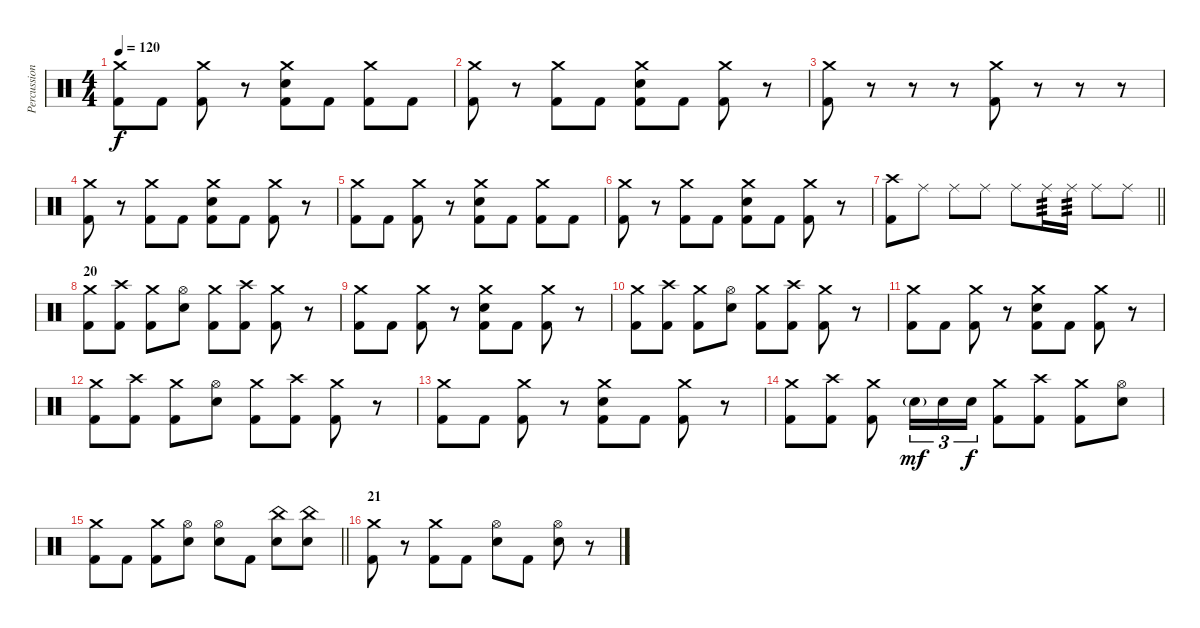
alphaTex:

\track ("Percussion" "Percussion") {instrument percussion}
\staff {score}
\articulation defaults
\ts (4 4)
\tempo 120
\clef neutral
\ks c
("Crash medium (hit)" "Kick (hit) 2").8{dy f} "Kick (hit) 2".8 ("Crash medium (hit)" "Kick (hit) 2").8 r.8 ("Crash medium (hit)" "Snare (hit) 2" "Kick (hit) 2").8 "Kick (hit) 2".8 ("Crash medium (hit)" "Kick (hit) 2").8 "Kick (hit) 2".8 |
("Crash medium (hit)" "Kick (hit) 2").8 r.8 ("Crash medium (hit)" "Kick (hit) 2").8 "Kick (hit) 2".8 ("Crash medium (hit)" "Snare (hit) 2" "Kick (hit) 2").8 "Kick (hit) 2".8 ("Crash medium (hit)" "Kick (hit) 2").8 r.8 |
("Crash medium (hit)" "Kick (hit) 2").8 r.8 r.8 r.8 ("Crash medium (hit)" "Kick (hit) 2").8 r.8 r.8 r.8 |
("Crash medium (hit)" "Kick (hit) 2").8 r.8 ("Crash medium (hit)" "Kick (hit) 2").8 "Kick (hit) 2".8 ("Crash medium (hit)" "Snare (hit) 2" "Kick (hit) 2").8 "Kick (hit) 2".8 ("Crash medium (hit)" "Kick (hit) 2").8 r.8 |
("Crash medium (hit)" "Kick (hit) 2").8 "Kick (hit) 2".8 ("Crash medium (hit)" "Kick (hit) 2").8 r.8 ("Crash medium (hit)" "Snare (hit) 2" "Kick (hit) 2").8 "Kick (hit) 2".8 ("Crash medium (hit)" "Kick (hit) 2").8 "Kick (hit) 2".8 |
("Crash medium (hit)" "Kick (hit) 2").8 r.8 ("Crash medium (hit)" "Kick (hit) 2").8 "Kick (hit) 2".8 ("Crash medium (hit)" "Snare (hit) 2" "Kick (hit) 2").8 "Kick (hit) 2".8 ("Crash medium (hit)" "Kick (hit) 2").8 r.8 |
\barLineRight lightlight
("Crash high (hit)" "Kick (hit) 2").8 "Ride (middle)".8 "Ride (middle)".8 "Ride (middle)".8 "Ride (middle)".8 "Ride (middle)".16{tp 3} "Ride (middle)".16{tp 3} "Ride (middle)".8 "Ride (middle)".8 |
\section ("" "20")
("Crash medium (hit)" "Kick (hit) 2").8 ("Crash high (hit)" "Kick (hit) 2").8 ("Crash medium (hit)" "Kick (hit) 2").8 ("Hi-Hat (open)" "Snare (hit) 2").8 ("Crash medium (hit)" "Kick (hit) 2").8 ("Crash high (hit)" "Kick (hit) 2").8 ("Crash medium (hit)" "Kick (hit) 2").8 r.8 |
("Crash medium (hit)" "Kick (hit) 2").8 "Kick (hit) 2".8 ("Crash medium (hit)" "Kick (hit) 2").8 r.8 ("Crash medium (hit)" "Snare (hit) 2" "Kick (hit) 2").8 "Kick (hit) 2".8 ("Crash medium (hit)" "Kick (hit) 2").8 r.8 |
("Crash medium (hit)" "Kick (hit) 2").8 ("Crash high (hit)" "Kick (hit) 2").8 ("Crash medium (hit)" "Kick (hit) 2").8 ("Hi-Hat (open)" "Snare (hit) 2").8 ("Crash medium (hit)" "Kick (hit) 2").8 ("Crash high (hit)" "Kick (hit) 2").8 ("Crash medium (hit)" "Kick (hit) 2").8 r.8 |
("Crash medium (hit)" "Kick (hit) 2").8 "Kick (hit) 2".8 ("Crash medium (hit)" "Kick (hit) 2").8 r.8 ("Crash medium (hit)" "Snare (hit) 2" "Kick (hit) 2").8 "Kick (hit) 2".8 ("Crash medium (hit)" "Kick (hit) 2").8 r.8 |
("Crash medium (hit)" "Kick (hit) 2").8 ("Crash high (hit)" "Kick (hit) 2").8 ("Crash medium (hit)" "Kick (hit) 2").8 ("Hi-Hat (open)" "Snare (hit) 2").8 ("Crash medium (hit)" "Kick (hit) 2").8 ("Crash high (hit)" "Kick (hit) 2").8 ("Crash medium (hit)" "Kick (hit) 2").8 r.8 |
("Crash medium (hit)" "Kick (hit) 2").8 "Kick (hit) 2".8 ("Crash medium (hit)" "Kick (hit) 2").8 r.8 ("Crash medium (hit)" "Snare (hit) 2" "Kick (hit) 2").8 "Kick (hit) 2".8 ("Crash medium (hit)" "Kick (hit) 2").8 r.8 |
("Crash medium (hit)" "Kick (hit) 2").8 ("Crash high (hit)" "Kick (hit) 2").8 ("Crash medium (hit)" "Kick (hit) 2").8 "Snare (hit) 2"{g}.16{tu (3 2) dy mf} "Snare (hit) 2".16{tu (3 2)} "Snare (hit) 2".16{tu (3 2) dy f} ("Crash medium (hit)" "Kick (hit) 2").8 ("Crash high (hit)" "Kick (hit) 2").8 ("Crash medium (hit)" "Kick (hit) 2").8 ("Hi-Hat (open)" "Snare (hit) 2").8 |
\barLineRight lightlight
("Crash medium (hit)" "Kick (hit) 2").8 "Kick (hit) 2".8 ("Crash medium (hit)" "Kick (hit) 2").8 ("Hi-Hat (open)" "Snare (hit) 2").8 ("Hi-Hat (open)" "Snare (hit) 2").8 "Kick (hit) 2".8 ("China (hit)" "Snare (hit) 2").8 ("China (hit)" "Snare (hit) 2").8 |
\section ("" "21")
("Crash medium (hit)" "Kick (hit) 2").8 r.8 ("Crash medium (hit)" "Kick (hit) 2").8 "Kick (hit) 2".8 ("Hi-Hat (open)" "Snare (hit) 2").8 "Kick (hit) 2".8 ("Hi-Hat (open)" "Snare (hit) 2").8 r.8
